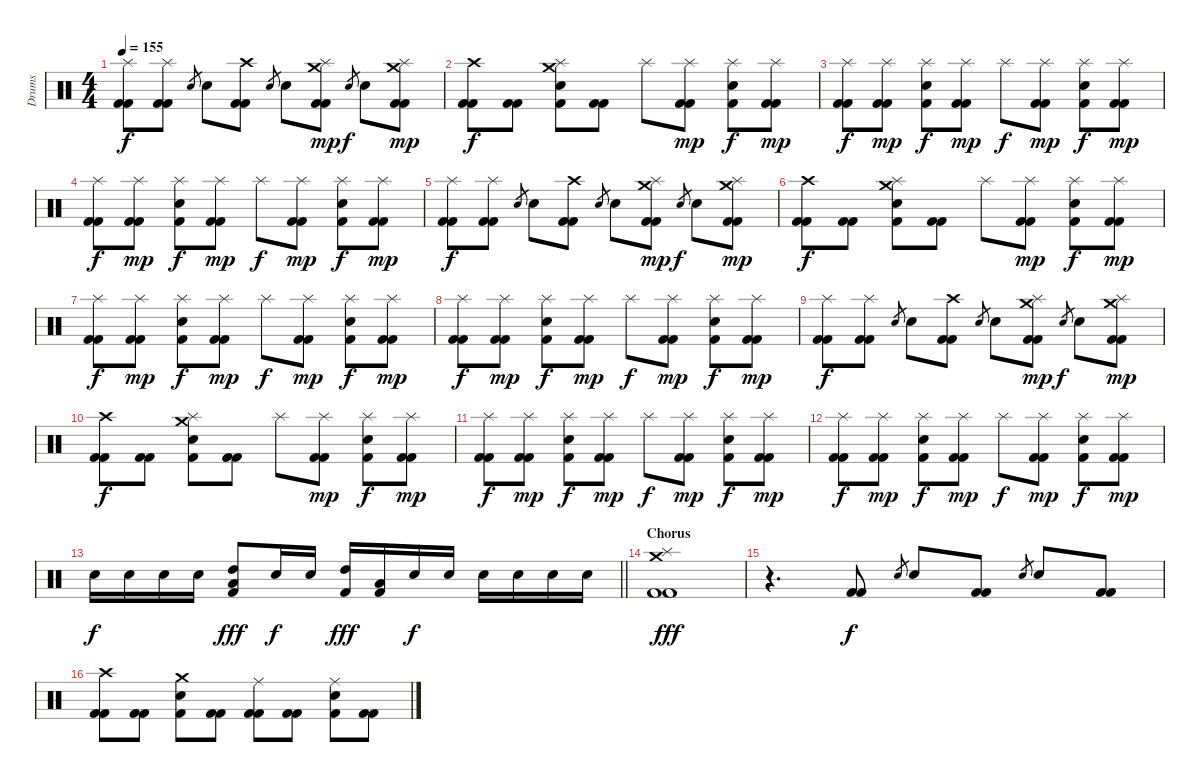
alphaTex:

\track ("Drums" "Drums") {instrument percussion}
\staff {score}
\articulation defaults
\ts (4 4)
\tempo 155
\clef neutral
\ks c
("Splash (hit)" "Kick (hit) 2" "Kick (hit) 2").8{dy f} ("Splash (hit)" "Kick (hit) 2" "Kick (hit) 2").8 "Electric Snare (hit)".8{gr} "Electric Snare (hit)".8 ("Crash high (hit)" "Kick (hit) 2" "Kick (hit) 2").8 "Electric Snare (hit)".8{gr} "Electric Snare (hit)".8 ("Crash medium (hit)" "Splash (hit)" "Kick (hit) 2" "Kick (hit) 2").8{dy mp} "Electric Snare (hit)".8{gr dy f} "Electric Snare (hit)".8 ("Crash medium (hit)" "Splash (hit)" "Kick (hit) 2" "Kick (hit) 2").8{dy mp} |
("Crash high (hit)" "Kick (hit) 2" "Kick (hit) 2").8{dy f} ("Kick (hit) 2" "Kick (hit) 2").8 ("Crash medium (hit)" "Splash (hit)" "Electric Snare (hit)" "Kick (hit) 2").8 ("Kick (hit) 2" "Kick (hit) 2").8 "Splash (hit)".8 ("Splash (hit)" "Kick (hit) 2" "Kick (hit) 2").8{dy mp} ("Splash (hit)" "Electric Snare (hit)" "Kick (hit) 2").8{dy f} ("Splash (hit)" "Kick (hit) 2" "Kick (hit) 2").8{dy mp} |
("Splash (hit)" "Kick (hit) 2" "Kick (hit) 2").8{dy f} ("Splash (hit)" "Kick (hit) 2" "Kick (hit) 2").8{dy mp} ("Splash (hit)" "Electric Snare (hit)" "Kick (hit) 2").8{dy f} ("Splash (hit)" "Kick (hit) 2" "Kick (hit) 2").8{dy mp} "Splash (hit)".8{dy f} ("Splash (hit)" "Kick (hit) 2" "Kick (hit) 2").8{dy mp} ("Splash (hit)" "Electric Snare (hit)" "Kick (hit) 2").8{dy f} ("Splash (hit)" "Kick (hit) 2" "Kick (hit) 2").8{dy mp} |
("Splash (hit)" "Kick (hit) 2" "Kick (hit) 2").8{dy f} ("Splash (hit)" "Kick (hit) 2" "Kick (hit) 2").8{dy mp} ("Splash (hit)" "Electric Snare (hit)" "Kick (hit) 2").8{dy f} ("Splash (hit)" "Kick (hit) 2" "Kick (hit) 2").8{dy mp} "Splash (hit)".8{dy f} ("Splash (hit)" "Kick (hit) 2" "Kick (hit) 2").8{dy mp} ("Splash (hit)" "Electric Snare (hit)" "Kick (hit) 2").8{dy f} ("Splash (hit)" "Kick (hit) 2" "Kick (hit) 2").8{dy mp} |
("Splash (hit)" "Kick (hit) 2" "Kick (hit) 2").8{dy f} ("Splash (hit)" "Kick (hit) 2" "Kick (hit) 2").8 "Electric Snare (hit)".8{gr} "Electric Snare (hit)".8 ("Crash high (hit)" "Kick (hit) 2" "Kick (hit) 2").8 "Electric Snare (hit)".8{gr} "Electric Snare (hit)".8 ("Crash medium (hit)" "Splash (hit)" "Kick (hit) 2" "Kick (hit) 2").8{dy mp} "Electric Snare (hit)".8{gr dy f} "Electric Snare (hit)".8 ("Crash medium (hit)" "Splash (hit)" "Kick (hit) 2" "Kick (hit) 2").8{dy mp} |
("Crash high (hit)" "Kick (hit) 2" "Kick (hit) 2").8{dy f} ("Kick (hit) 2" "Kick (hit) 2").8 ("Crash medium (hit)" "Splash (hit)" "Electric Snare (hit)" "Kick (hit) 2").8 ("Kick (hit) 2" "Kick (hit) 2").8 "Splash (hit)".8 ("Splash (hit)" "Kick (hit) 2" "Kick (hit) 2").8{dy mp} ("Splash (hit)" "Electric Snare (hit)" "Kick (hit) 2").8{dy f} ("Splash (hit)" "Kick (hit) 2" "Kick (hit) 2").8{dy mp} |
("Splash (hit)" "Kick (hit) 2" "Kick (hit) 2").8{dy f} ("Splash (hit)" "Kick (hit) 2" "Kick (hit) 2").8{dy mp} ("Splash (hit)" "Electric Snare (hit)" "Kick (hit) 2").8{dy f} ("Splash (hit)" "Kick (hit) 2" "Kick (hit) 2").8{dy mp} "Splash (hit)".8{dy f} ("Splash (hit)" "Kick (hit) 2" "Kick (hit) 2").8{dy mp} ("Splash (hit)" "Electric Snare (hit)" "Kick (hit) 2").8{dy f} ("Splash (hit)" "Kick (hit) 2" "Kick (hit) 2").8{dy mp} |
("Splash (hit)" "Kick (hit) 2" "Kick (hit) 2").8{dy f} ("Splash (hit)" "Kick (hit) 2" "Kick (hit) 2").8{dy mp} ("Splash (hit)" "Electric Snare (hit)" "Kick (hit) 2").8{dy f} ("Splash (hit)" "Kick (hit) 2" "Kick (hit) 2").8{dy mp} "Splash (hit)".8{dy f} ("Splash (hit)" "Kick (hit) 2" "Kick (hit) 2").8{dy mp} ("Splash (hit)" "Electric Snare (hit)" "Kick (hit) 2").8{dy f} ("Splash (hit)" "Kick (hit) 2" "Kick (hit) 2").8{dy mp} |
("Splash (hit)" "Kick (hit) 2" "Kick (hit) 2").8{dy f} ("Splash (hit)" "Kick (hit) 2" "Kick (hit) 2").8 "Electric Snare (hit)".8{gr} "Electric Snare (hit)".8 ("Crash high (hit)" "Kick (hit) 2" "Kick (hit) 2").8 "Electric Snare (hit)".8{gr} "Electric Snare (hit)".8 ("Crash medium (hit)" "Splash (hit)" "Kick (hit) 2" "Kick (hit) 2").8{dy mp} "Electric Snare (hit)".8{gr dy f} "Electric Snare (hit)".8 ("Crash medium (hit)" "Splash (hit)" "Kick (hit) 2" "Kick (hit) 2").8{dy mp} |
("Crash high (hit)" "Kick (hit) 2" "Kick (hit) 2").8{dy f} ("Kick (hit) 2" "Kick (hit) 2").8 ("Crash medium (hit)" "Splash (hit)" "Electric Snare (hit)" "Kick (hit) 2").8 ("Kick (hit) 2" "Kick (hit) 2").8 "Splash (hit)".8 ("Splash (hit)" "Kick (hit) 2" "Kick (hit) 2").8{dy mp} ("Splash (hit)" "Electric Snare (hit)" "Kick (hit) 2").8{dy f} ("Splash (hit)" "Kick (hit) 2" "Kick (hit) 2").8{dy mp} |
("Splash (hit)" "Kick (hit) 2" "Kick (hit) 2").8{dy f} ("Splash (hit)" "Kick (hit) 2" "Kick (hit) 2").8{dy mp} ("Splash (hit)" "Electric Snare (hit)" "Kick (hit) 2").8{dy f} ("Splash (hit)" "Kick (hit) 2" "Kick (hit) 2").8{dy mp} "Splash (hit)".8{dy f} ("Splash (hit)" "Kick (hit) 2" "Kick (hit) 2").8{dy mp} ("Splash (hit)" "Electric Snare (hit)" "Kick (hit) 2").8{dy f} ("Splash (hit)" "Kick (hit) 2" "Kick (hit) 2").8{dy mp} |
("Splash (hit)" "Kick (hit) 2" "Kick (hit) 2").8{dy f} ("Splash (hit)" "Kick (hit) 2" "Kick (hit) 2").8{dy mp} ("Splash (hit)" "Electric Snare (hit)" "Kick (hit) 2").8{dy f} ("Splash (hit)" "Kick (hit) 2" "Kick (hit) 2").8{dy mp} "Splash (hit)".8{dy f} ("Splash (hit)" "Kick (hit) 2" "Kick (hit) 2").8{dy mp} ("Splash (hit)" "Electric Snare (hit)" "Kick (hit) 2").8{dy f} ("Splash (hit)" "Kick (hit) 2" "Kick (hit) 2").8{dy mp} |
\barLineRight lightlight "Electric Snare (hit)".16{dy f} "Electric Snare (hit)".16 "Electric Snare (hit)".16 "Electric Snare (hit)".16
("High Tom (hit)" "Low Tom (hit)" "Kick (hit) 2").8{dy fff} "Electric Snare (hit)".16{dy f} "Electric Snare (hit)".16 ("High Tom (hit)" "Kick (hit) 2").16{dy fff} ("Low Tom (hit)" "Kick (hit) 2").16 "Electric Snare (hit)".16{dy f} "Electric Snare (hit)".16 "Electric Snare (hit)".16 "Electric Snare (hit)".16 "Electric Snare (hit)".16 "Electric Snare (hit)".16 |
\section ("" "Chorus")
("Crash medium (hit)" "Splash (hit)" "Kick (hit) 2" "Kick (hit) 2").1{dy fff} |
r.4{d} ("Kick (hit) 2" "Kick (hit) 2").8{dy f} "Electric Snare (hit)".8{gr} "Electric Snare (hit)".8 ("Kick (hit) 2" "Kick (hit) 2").8 "Electric Snare (hit)".8{gr} "Electric Snare (hit)".8 ("Kick (hit) 2" "Kick (hit) 2").8 |
("Crash high (hit)" "Kick (hit) 2" "Kick (hit) 2").8 ("Kick (hit) 2" "Kick (hit) 2").8 ("Crash medium (hit)" "Electric Snare (hit)" "Kick (hit) 2").8 ("Kick (hit) 2" "Kick (hit) 2").8 ("Ride (middle)" "Kick (hit) 2" "Kick (hit) 2").8 ("Kick (hit) 2" "Kick (hit) 2").8 ("Ride (middle)" "Electric Snare (hit)" "Kick (hit) 2").8 ("Kick (hit) 2" "Kick (hit) 2").8
